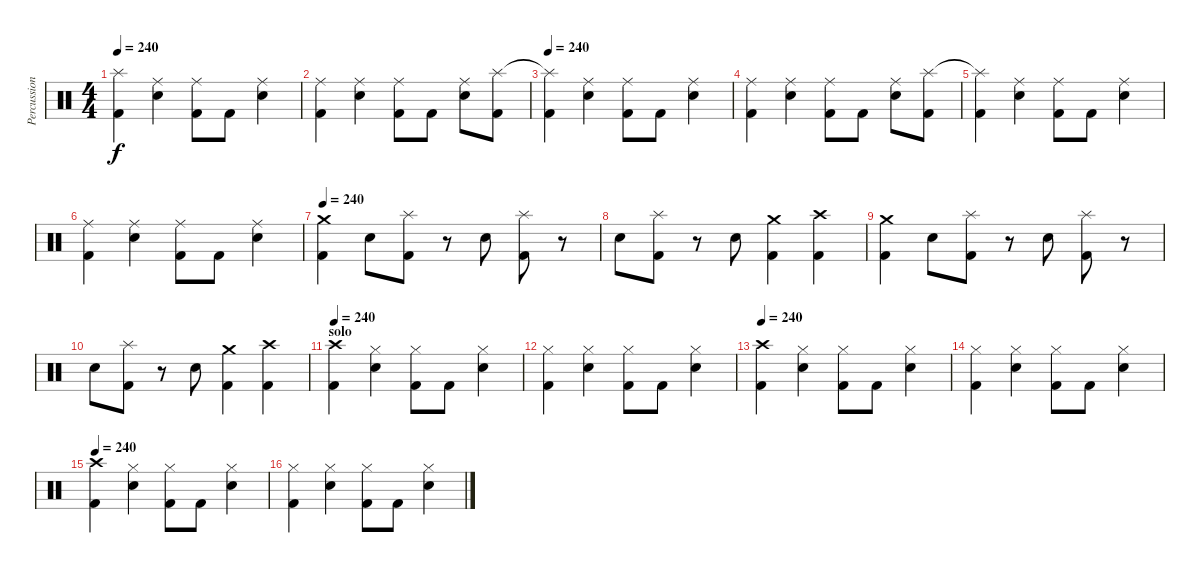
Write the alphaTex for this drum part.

\track ("Percussions" "Percussion") {instrument percussion}
\staff {score}
\articulation defaults
\ts (4 4)
\tempo 240
\clef neutral
\ks c
("Splash (hit)"{t} "Kick (hit) 2").4{dy f} ("Ride (middle)" "Electric Snare (hit)").4 ("Ride (middle)" "Kick (hit) 2").8 "Kick (hit) 2".8 ("Ride (middle)" "Electric Snare (hit)").4 |
("Ride (middle)" "Kick (hit) 2").4 ("Ride (middle)" "Electric Snare (hit)").4 ("Ride (middle)" "Kick (hit) 2").8 "Kick (hit) 2".8 ("Ride (middle)" "Electric Snare (hit)").8 ("Splash (hit)" "Kick (hit) 2").8 |
\tempo 240
("Splash (hit)"{t} "Kick (hit) 2").4 ("Ride (middle)" "Electric Snare (hit)").4 ("Ride (middle)" "Kick (hit) 2").8 "Kick (hit) 2".8 ("Ride (middle)" "Electric Snare (hit)").4 |
("Ride (middle)" "Kick (hit) 2").4 ("Ride (middle)" "Electric Snare (hit)").4 ("Ride (middle)" "Kick (hit) 2").8 "Kick (hit) 2".8 ("Ride (middle)" "Electric Snare (hit)").8 ("Splash (hit)" "Kick (hit) 2").8 |
("Splash (hit)"{t} "Kick (hit) 2").4 ("Ride (middle)" "Electric Snare (hit)").4 ("Ride (middle)" "Kick (hit) 2").8 "Kick (hit) 2".8 ("Ride (middle)" "Electric Snare (hit)").4 |
("Ride (middle)" "Kick (hit) 2").4 ("Ride (middle)" "Electric Snare (hit)").4 ("Ride (middle)" "Kick (hit) 2").8 "Kick (hit) 2".8 ("Ride (middle)" "Electric Snare (hit)").4 |
\tempo 240
("Crash medium (hit)" "Kick (hit) 2").4 "Electric Snare (hit)".8 ("Splash (hit)" "Kick (hit) 2").8 r.8 "Electric Snare (hit)".8 ("Splash (hit)" "Kick (hit) 2").8 r.8 |
"Electric Snare (hit)".8 ("Splash (hit)" "Kick (hit) 2").8 r.8 "Electric Snare (hit)".8 ("Crash medium (hit)" "Kick (hit) 2").4 ("Crash high (hit)" "Kick (hit) 2").4 |
("Crash medium (hit)" "Kick (hit) 2").4 "Electric Snare (hit)".8 ("Splash (hit)" "Kick (hit) 2").8 r.8 "Electric Snare (hit)".8 ("Splash (hit)" "Kick (hit) 2").8 r.8 |
"Electric Snare (hit)".8 ("Splash (hit)" "Kick (hit) 2").8 r.8 "Electric Snare (hit)".8 ("Crash medium (hit)" "Kick (hit) 2").4 ("Crash high (hit)" "Kick (hit) 2").4 |
\section ("" "solo")
\tempo 240
("Crash high (hit)" "Kick (hit) 2").4 ("Hi-Hat (closed)" "Electric Snare (hit)").4 ("Hi-Hat (closed)" "Kick (hit) 2").8 "Kick (hit) 2".8 ("Hi-Hat (closed)" "Electric Snare (hit)").4 |
("Hi-Hat (closed)" "Kick (hit) 2").4 ("Hi-Hat (closed)" "Electric Snare (hit)").4 ("Hi-Hat (closed)" "Kick (hit) 2").8 "Kick (hit) 2".8 ("Hi-Hat (closed)" "Electric Snare (hit)").4 |
\tempo 240
("Crash high (hit)" "Kick (hit) 2").4 ("Hi-Hat (closed)" "Electric Snare (hit)").4 ("Hi-Hat (closed)" "Kick (hit) 2").8 "Kick (hit) 2".8 ("Hi-Hat (closed)" "Electric Snare (hit)").4 |
("Hi-Hat (closed)" "Kick (hit) 2").4 ("Hi-Hat (closed)" "Electric Snare (hit)").4 ("Hi-Hat (closed)" "Kick (hit) 2").8 "Kick (hit) 2".8 ("Hi-Hat (closed)" "Electric Snare (hit)").4 |
\tempo 240
("Crash high (hit)" "Kick (hit) 2").4 ("Hi-Hat (closed)" "Electric Snare (hit)").4 ("Hi-Hat (closed)" "Kick (hit) 2").8 "Kick (hit) 2".8 ("Hi-Hat (closed)" "Electric Snare (hit)").4 |
("Hi-Hat (closed)" "Kick (hit) 2").4 ("Hi-Hat (closed)" "Electric Snare (hit)").4 ("Hi-Hat (closed)" "Kick (hit) 2").8 "Kick (hit) 2".8 ("Hi-Hat (closed)" "Electric Snare (hit)").4
